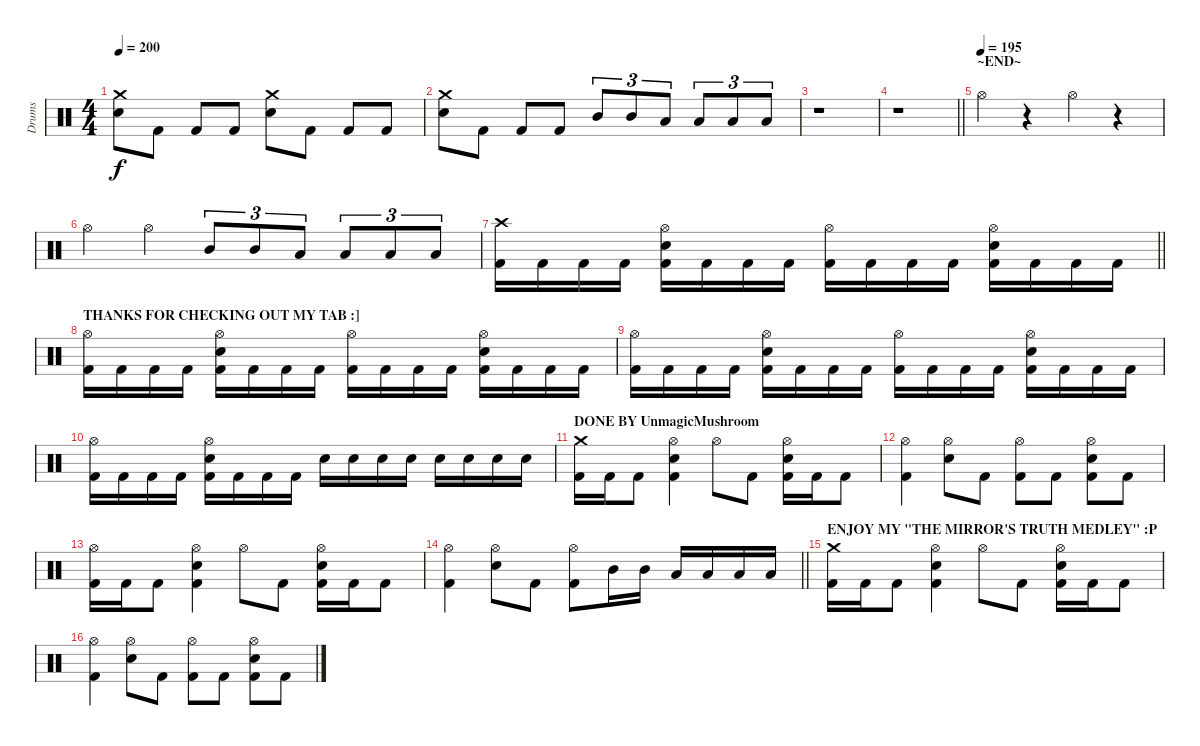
\track ("Drums" "Drums") {instrument percussion}
\staff {score}
\articulation defaults
\ts (4 4)
\tempo 200
\clef neutral
\ks c
("Crash medium (hit)" "Electric Snare (hit)").8{dy f} "Kick (hit) 2".8 "Kick (hit) 2".8 "Kick (hit) 2".8 ("Crash medium (hit)" "Electric Snare (hit)").8 "Kick (hit) 2".8 "Kick (hit) 2".8 "Kick (hit) 2".8 |
("Crash medium (hit)" "Electric Snare (hit)").8 "Kick (hit) 2".8 "Kick (hit) 2".8 "Kick (hit) 2".8 "Mid Tom (hit)".8{tu (3 2)} "Mid Tom (hit)".8{tu (3 2)} "Low Tom (hit)".8{tu (3 2)} "Low Tom (hit)".8{tu (3 2)} "Low Floor Tom (hit)".8{tu (3 2)} "Low Floor Tom (hit)".8{tu (3 2)} |
r.1 |
\barLineRight lightlight
r.1 |
\section ("" "~END~")
\tempo (195)
"Hi-Hat (open)".4 r.4 "Hi-Hat (open)".4 r.4 |
"Hi-Hat (open)".4 "Hi-Hat (open)".4 "Mid Tom (hit)".8{tu (3 2)} "Mid Tom (hit)".8{tu (3 2)} "Low Tom (hit)".8{tu (3 2)} "Low Tom (hit)".8{tu (3 2)} "Low Floor Tom (hit)".8{tu (3 2)} "Low Floor Tom (hit)".8{tu (3 2)} |
\barLineRight lightlight
("Crash high (hit)" "Kick (hit) 2").16 "Kick (hit) 2".16 "Kick (hit) 2".16 "Kick (hit) 2".16 ("Hi-Hat (open)" "Electric Snare (hit)" "Kick (hit) 2").16 "Kick (hit) 2".16 "Kick (hit) 2".16 "Kick (hit) 2".16 ("Hi-Hat (open)" "Kick (hit) 2").16 "Kick (hit) 2".16 "Kick (hit) 2".16 "Kick (hit) 2".16 ("Hi-Hat (open)" "Electric Snare (hit)" "Kick (hit) 2").16 "Kick (hit) 2".16 "Kick (hit) 2".16 "Kick (hit) 2".16 |
\section ("" "THANKS FOR CHECKING OUT MY TAB :]")
("Hi-Hat (open)" "Kick (hit) 2").16 "Kick (hit) 2".16 "Kick (hit) 2".16 "Kick (hit) 2".16 ("Hi-Hat (open)" "Electric Snare (hit)" "Kick (hit) 2").16 "Kick (hit) 2".16 "Kick (hit) 2".16 "Kick (hit) 2".16 ("Hi-Hat (open)" "Kick (hit) 2").16 "Kick (hit) 2".16 "Kick (hit) 2".16 "Kick (hit) 2".16 ("Hi-Hat (open)" "Electric Snare (hit)" "Kick (hit) 2").16 "Kick (hit) 2".16 "Kick (hit) 2".16 "Kick (hit) 2".16 |
("Hi-Hat (open)" "Kick (hit) 2").16 "Kick (hit) 2".16 "Kick (hit) 2".16 "Kick (hit) 2".16 ("Hi-Hat (open)" "Electric Snare (hit)" "Kick (hit) 2").16 "Kick (hit) 2".16 "Kick (hit) 2".16 "Kick (hit) 2".16 ("Hi-Hat (open)" "Kick (hit) 2").16 "Kick (hit) 2".16 "Kick (hit) 2".16 "Kick (hit) 2".16 ("Hi-Hat (open)" "Electric Snare (hit)" "Kick (hit) 2").16 "Kick (hit) 2".16 "Kick (hit) 2".16 "Kick (hit) 2".16 |
("Hi-Hat (open)" "Kick (hit) 2").16 "Kick (hit) 2".16 "Kick (hit) 2".16 "Kick (hit) 2".16 ("Hi-Hat (open)" "Electric Snare (hit)" "Kick (hit) 2").16 "Kick (hit) 2".16 "Kick (hit) 2".16 "Kick (hit) 2".16 "Electric Snare (hit)".16 "Electric Snare (hit)".16 "Electric Snare (hit)".16 "Electric Snare (hit)".16 "Electric Snare (hit)".16 "Electric Snare (hit)".16 "Electric Snare (hit)".16 "Electric Snare (hit)".16 |
\section ("" "DONE BY UnmagicMushroom")
("Crash medium (hit)" "Kick (hit) 2").16 "Kick (hit) 2".16 "Kick (hit) 2".8 ("Hi-Hat (open)" "Electric Snare (hit)" "Kick (hit) 2").4 "Hi-Hat (open)".8 "Kick (hit) 2".8 ("Hi-Hat (open)" "Electric Snare (hit)" "Kick (hit) 2").16 "Kick (hit) 2".16 "Kick (hit) 2".8 |
("Hi-Hat (open)" "Kick (hit) 2").4 ("Hi-Hat (open)" "Electric Snare (hit)").8 "Kick (hit) 2".8 ("Hi-Hat (open)" "Kick (hit) 2").8 "Kick (hit) 2".8 ("Hi-Hat (open)" "Electric Snare (hit)" "Kick (hit) 2").8 "Kick (hit) 2".8 |
("Hi-Hat (open)" "Kick (hit) 2").16 "Kick (hit) 2".16 "Kick (hit) 2".8 ("Hi-Hat (open)" "Electric Snare (hit)" "Kick (hit) 2").4 "Hi-Hat (open)".8 "Kick (hit) 2".8 ("Hi-Hat (open)" "Electric Snare (hit)" "Kick (hit) 2").16 "Kick (hit) 2".16 "Kick (hit) 2".8 |
\barLineRight lightlight
("Hi-Hat (open)" "Kick (hit) 2").4 ("Hi-Hat (open)" "Electric Snare (hit)").8 "Kick (hit) 2".8 ("Hi-Hat (open)" "Kick (hit) 2").8 "Mid Tom (hit)".16 "Mid Tom (hit)".16 "Low Tom (hit)".16 "Low Tom (hit)".16 "Low Floor Tom (hit)".16 "Low Floor Tom (hit)".16 |
\section ("" "ENJOY MY \"THE MIRROR'S TRUTH MEDLEY\" :P")
("Crash medium (hit)" "Kick (hit) 2").16 "Kick (hit) 2".16 "Kick (hit) 2".8 ("Hi-Hat (open)" "Electric Snare (hit)" "Kick (hit) 2").4 "Hi-Hat (open)".8 "Kick (hit) 2".8 ("Hi-Hat (open)" "Electric Snare (hit)" "Kick (hit) 2").16 "Kick (hit) 2".16 "Kick (hit) 2".8 |
("Hi-Hat (open)" "Kick (hit) 2").4 ("Hi-Hat (open)" "Electric Snare (hit)").8 "Kick (hit) 2".8 ("Hi-Hat (open)" "Kick (hit) 2").8 "Kick (hit) 2".8 ("Hi-Hat (open)" "Electric Snare (hit)" "Kick (hit) 2").8 "Kick (hit) 2".8
